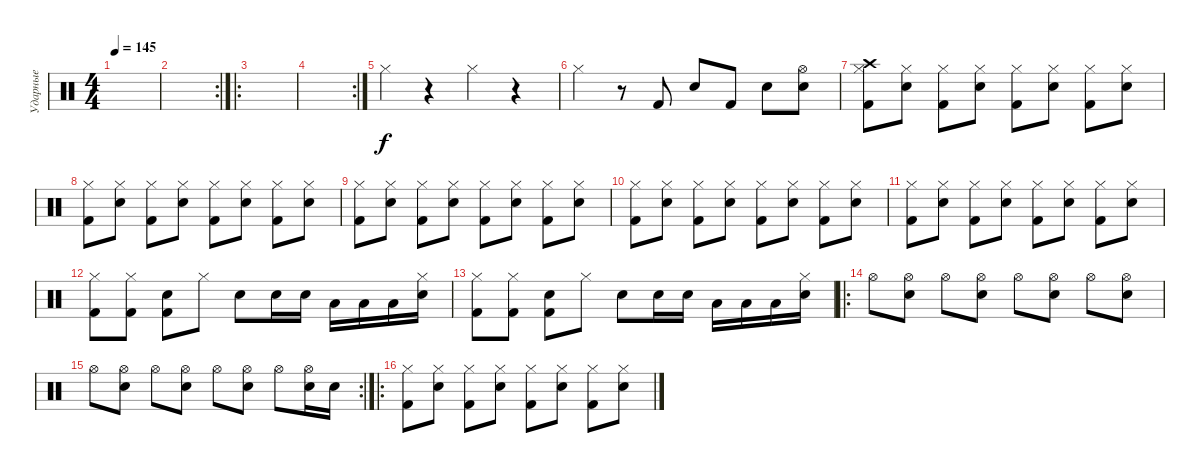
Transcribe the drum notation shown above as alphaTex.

\track ("Ударные" "Ударные") {instrument percussion}
\staff {score}
\articulation defaults
\ts (4 4)
\tempo 145
\clef neutral
\ks c
|
\rc 2
|
\ro
|
\rc 2
|
"Hi-Hat (closed)".4 r.4 "Hi-Hat (closed)".4 r.4 |
"Hi-Hat (closed)".4 r.8 "Kick (hit) 2".8 "Snare (hit) 2".8 "Kick (hit) 2".8 "Electric Snare (hit)".8 ("Electric Snare (hit)" "Hi-Hat (open)").8 |
("Kick (hit) 2" "Hi-Hat (closed)" "Crash high (hit)").8 ("Snare (hit) 2" "Hi-Hat (closed)").8 ("Kick (hit) 2" "Hi-Hat (closed)").8 ("Snare (hit) 2" "Hi-Hat (closed)").8 ("Kick (hit) 2" "Hi-Hat (closed)").8 ("Snare (hit) 2" "Hi-Hat (closed)").8 ("Kick (hit) 2" "Hi-Hat (closed)").8 ("Snare (hit) 2" "Hi-Hat (closed)").8 |
("Kick (hit) 2" "Hi-Hat (closed)").8 ("Snare (hit) 2" "Hi-Hat (closed)").8 ("Kick (hit) 2" "Hi-Hat (closed)").8 ("Snare (hit) 2" "Hi-Hat (closed)").8 ("Kick (hit) 2" "Hi-Hat (closed)").8 ("Snare (hit) 2" "Hi-Hat (closed)").8 ("Kick (hit) 2" "Hi-Hat (closed)").8 ("Snare (hit) 2" "Hi-Hat (closed)").8 |
("Kick (hit) 2" "Hi-Hat (closed)").8 ("Snare (hit) 2" "Hi-Hat (closed)").8 ("Kick (hit) 2" "Hi-Hat (closed)").8 ("Snare (hit) 2" "Hi-Hat (closed)").8 ("Kick (hit) 2" "Hi-Hat (closed)").8 ("Snare (hit) 2" "Hi-Hat (closed)").8 ("Kick (hit) 2" "Hi-Hat (closed)").8 ("Snare (hit) 2" "Hi-Hat (closed)").8 |
("Kick (hit) 2" "Hi-Hat (closed)").8 ("Snare (hit) 2" "Hi-Hat (closed)").8 ("Kick (hit) 2" "Hi-Hat (closed)").8 ("Snare (hit) 2" "Hi-Hat (closed)").8 ("Kick (hit) 2" "Hi-Hat (closed)").8 ("Snare (hit) 2" "Hi-Hat (closed)").8 ("Kick (hit) 2" "Hi-Hat (closed)").8 ("Snare (hit) 2" "Hi-Hat (closed)").8 |
("Kick (hit) 2" "Hi-Hat (closed)").8 ("Snare (hit) 2" "Hi-Hat (closed)").8 ("Kick (hit) 2" "Hi-Hat (closed)").8 ("Snare (hit) 2" "Hi-Hat (closed)").8 ("Kick (hit) 2" "Hi-Hat (closed)").8 ("Snare (hit) 2" "Hi-Hat (closed)").8 ("Kick (hit) 2" "Hi-Hat (closed)").8 ("Snare (hit) 2" "Hi-Hat (closed)").8 |
("Hi-Hat (closed)" "Kick (hit) 2").8 ("Hi-Hat (closed)" "Kick (hit) 2").8 ("Kick (hit) 2" "Snare (hit) 2").8 "Hi-Hat (closed)".8 "Electric Snare (hit)".8 "Electric Snare (hit)".16 "Electric Snare (hit)".16 "Low Tom (hit)".16 "Low Tom (hit)".16 "Low Tom (hit)".16 ("Hi-Hat (closed)" "Snare (hit) 2").16 |
("Hi-Hat (closed)" "Kick (hit) 2").8 ("Hi-Hat (closed)" "Kick (hit) 2").8 ("Kick (hit) 2" "Snare (hit) 2").8 "Hi-Hat (closed)".8 "Electric Snare (hit)".8 "Electric Snare (hit)".16 "Electric Snare (hit)".16 "Low Tom (hit)".16 "Low Tom (hit)".16 "Low Tom (hit)".16 ("Hi-Hat (closed)" "Snare (hit) 2").16 |
\ro "Hi-Hat (open)".8
("Electric Snare (hit)" "Hi-Hat (open)").8 "Hi-Hat (open)".8 ("Electric Snare (hit)" "Hi-Hat (open)").8 "Hi-Hat (open)".8 ("Electric Snare (hit)" "Hi-Hat (open)").8 "Hi-Hat (open)".8 ("Electric Snare (hit)" "Hi-Hat (open)").8 |
\rc 2 "Hi-Hat (open)".8
("Electric Snare (hit)" "Hi-Hat (open)").8 "Hi-Hat (open)".8 ("Electric Snare (hit)" "Hi-Hat (open)").8 "Hi-Hat (open)".8 ("Electric Snare (hit)" "Hi-Hat (open)").8 "Hi-Hat (open)".8 ("Electric Snare (hit)" "Hi-Hat (open)").16 "Electric Snare (hit)".16 |
\ro
("Kick (hit) 2" "Hi-Hat (closed)").8 ("Snare (hit) 2" "Hi-Hat (closed)").8 ("Kick (hit) 2" "Hi-Hat (closed)").8 ("Snare (hit) 2" "Hi-Hat (closed)").8 ("Kick (hit) 2" "Hi-Hat (closed)").8 ("Snare (hit) 2" "Hi-Hat (closed)").8 ("Kick (hit) 2" "Hi-Hat (closed)").8 ("Snare (hit) 2" "Hi-Hat (closed)").8
